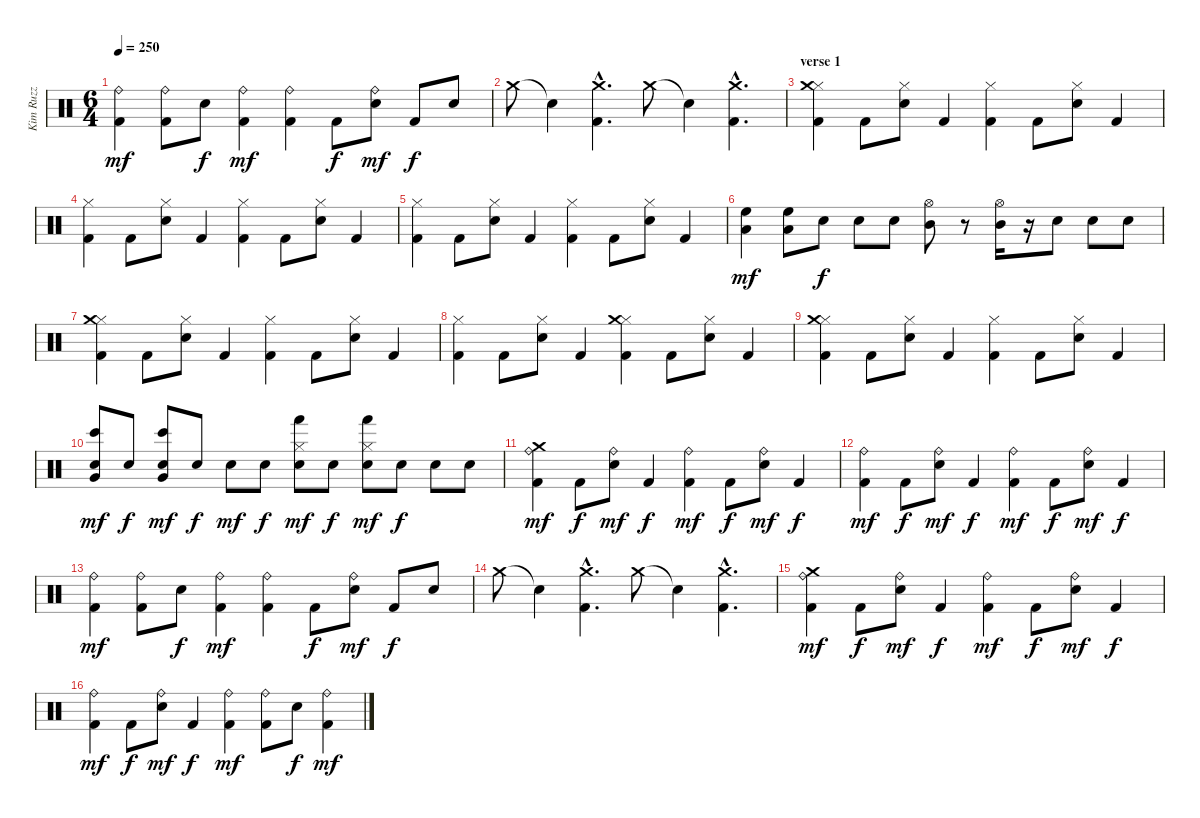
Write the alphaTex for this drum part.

\track ("Kim Ruzz" "Kim Ruzz") {instrument percussion}
\staff {score}
\articulation defaults
\ts (6 4)
\tempo 250
\clef neutral
\ks c
("Kick (hit) 2" "Ride (bell)").4{dy mf} ("Kick (hit) 2" "Ride (bell)").8 "Snare (hit) 2".8{dy f} ("Kick (hit) 2" "Ride (bell)").4{dy mf} ("Kick (hit) 2" "Ride (bell)").4 "Kick (hit) 2".8{dy f} ("Ride (bell)" "Snare (hit) 2").8{dy mf} "Kick (hit) 2".8{dy f} "Snare (hit) 2".8 |
"Crash medium (hit)".8 "Snare (hit)"{t}.4 ("Kick (hit) 2"{hac} "Crash medium (hit)"{hac}).4{d} "Crash medium (hit)".8 "Snare (hit)"{t}.4 ("Kick (hit) 2"{hac} "Crash medium (hit)"{hac}).4{d} |
\section ("" "verse 1")
("Kick (hit) 2" "Hi-Hat (closed)" "Crash medium (hit)").4 "Kick (hit) 2".8 ("Hi-Hat (closed)" "Snare (hit) 2").8 "Kick (hit) 2".4 ("Kick (hit) 2" "Hi-Hat (closed)").4 "Kick (hit) 2".8 ("Hi-Hat (closed)" "Snare (hit) 2").8 "Kick (hit) 2".4 |
("Kick (hit) 2" "Hi-Hat (closed)").4 "Kick (hit) 2".8 ("Hi-Hat (closed)" "Snare (hit) 2").8 "Kick (hit) 2".4 ("Kick (hit) 2" "Hi-Hat (closed)").4 "Kick (hit) 2".8 ("Hi-Hat (closed)" "Snare (hit) 2").8 "Kick (hit) 2".4 |
("Kick (hit) 2" "Hi-Hat (closed)").4 "Kick (hit) 2".8 ("Hi-Hat (closed)" "Snare (hit) 2").8 "Kick (hit) 2".4 ("Kick (hit) 2" "Hi-Hat (closed)").4 "Kick (hit) 2".8 ("Hi-Hat (closed)" "Snare (hit) 2").8 "Kick (hit) 2".4 |
("Low Tom (hit)" "High Floor Tom (hit)").4{dy mf} ("Low Tom (hit)" "High Floor Tom (hit)").8 "Snare (hit) 2".8{dy f} "Snare (hit) 2".8 "Snare (hit) 2".8 ("Mid Tom (hit)" "Hi-Hat (open)").8 r.8 ("Mid Tom (hit)" "Hi-Hat (open)").16 r.16 "Snare (hit) 2".8 "Snare (hit) 2".8 "Snare (hit) 2".8 |
("Kick (hit) 2" "Hi-Hat (closed)" "Crash medium (hit)").4 "Kick (hit) 2".8 ("Hi-Hat (closed)" "Snare (hit) 2").8 "Kick (hit) 2".4 ("Kick (hit) 2" "Hi-Hat (closed)").4 "Kick (hit) 2".8 ("Hi-Hat (closed)" "Snare (hit) 2").8 "Kick (hit) 2".4 |
("Kick (hit) 2" "Hi-Hat (closed)").4 "Kick (hit) 2".8 ("Hi-Hat (closed)" "Snare (hit) 2").8 "Kick (hit) 2".4 ("Kick (hit) 2" "Hi-Hat (closed)" "Crash medium (hit)").4 "Kick (hit) 2".8 ("Hi-Hat (closed)" "Snare (hit) 2").8 "Kick (hit) 2".4 |
("Kick (hit) 2" "Hi-Hat (closed)" "Crash medium (hit)").4 "Kick (hit) 2".8 ("Hi-Hat (closed)" "Snare (hit) 2").8 "Kick (hit) 2".4 ("Kick (hit) 2" "Hi-Hat (closed)").4 "Kick (hit) 2".8 ("Hi-Hat (closed)" "Snare (hit) 2").8 "Kick (hit) 2".4 |
("Bongo High (hit)" "Very Low Tom (hit)" "Snare (hit) 2").8{dy mf} "Snare (hit) 2".8{dy f} ("Bongo High (hit)" "Very Low Tom (hit)" "Snare (hit) 2").8{dy mf} "Snare (hit) 2".8{dy f} "Snare (hit) 2".8{dy mf} "Snare (hit) 2".8{dy f} ("Hand (hit)" "Hi-Hat (closed)" "Snare (hit) 2").8{dy mf} "Snare (hit) 2".8{dy f} ("Hand (hit)" "Hi-Hat (closed)" "Snare (hit) 2").8{dy mf} "Snare (hit) 2".8{dy f} "Snare (hit) 2".8 "Snare (hit) 2".8 |
("Kick (hit) 2" "Ride (bell)" "Crash medium (hit)").4{dy mf} "Kick (hit) 2".8{dy f} ("Ride (bell)" "Snare (hit) 2").8{dy mf} "Kick (hit) 2".4{dy f} ("Kick (hit) 2" "Ride (bell)").4{dy mf} "Kick (hit) 2".8{dy f} ("Ride (bell)" "Snare (hit) 2").8{dy mf} "Kick (hit) 2".4{dy f} |
("Kick (hit) 2" "Ride (bell)").4{dy mf} "Kick (hit) 2".8{dy f} ("Ride (bell)" "Snare (hit) 2").8{dy mf} "Kick (hit) 2".4{dy f} ("Kick (hit) 2" "Ride (bell)").4{dy mf} "Kick (hit) 2".8{dy f} ("Ride (bell)" "Snare (hit) 2").8{dy mf} "Kick (hit) 2".4{dy f} |
("Kick (hit) 2" "Ride (bell)").4{dy mf} ("Kick (hit) 2" "Ride (bell)").8 "Snare (hit) 2".8{dy f} ("Kick (hit) 2" "Ride (bell)").4{dy mf} ("Kick (hit) 2" "Ride (bell)").4 "Kick (hit) 2".8{dy f} ("Ride (bell)" "Snare (hit) 2").8{dy mf} "Kick (hit) 2".8{dy f} "Snare (hit) 2".8 |
"Crash medium (hit)".8 "Snare (hit)"{t}.4 ("Kick (hit) 2"{hac} "Crash medium (hit)"{hac}).4{d} "Crash medium (hit)".8 "Snare (hit)"{t}.4 ("Kick (hit) 2"{hac} "Crash medium (hit)"{hac}).4{d} |
("Kick (hit) 2" "Ride (bell)" "Crash medium (hit)").4{dy mf} "Kick (hit) 2".8{dy f} ("Ride (bell)" "Snare (hit) 2").8{dy mf} "Kick (hit) 2".4{dy f} ("Kick (hit) 2" "Ride (bell)").4{dy mf} "Kick (hit) 2".8{dy f} ("Ride (bell)" "Snare (hit) 2").8{dy mf} "Kick (hit) 2".4{dy f} |
("Kick (hit) 2" "Ride (bell)").4{dy mf} "Kick (hit) 2".8{dy f} ("Ride (bell)" "Snare (hit) 2").8{dy mf} "Kick (hit) 2".4{dy f} ("Kick (hit) 2" "Ride (bell)").4{dy mf} ("Kick (hit) 2" "Ride (bell)").8 "Snare (hit) 2".8{dy f} ("Kick (hit) 2" "Ride (bell)").4{dy mf}
